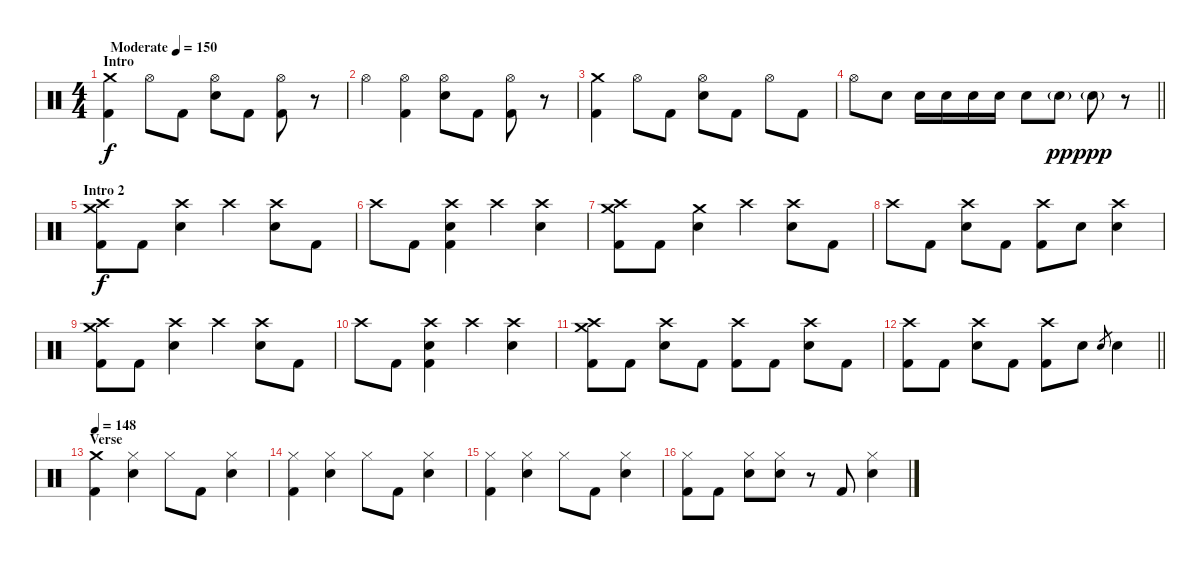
\track "" {instrument percussion}
\staff {score}
\articulation defaults
\ts (4 4)
\section ("" "Intro")
\tempo (150 "Moderate")
\clef neutral
\ks c
("Crash medium (hit)" "Kick (hit) 2").4{dy f} "Hi-Hat (open)".8 "Kick (hit) 2".8 ("Hi-Hat (open)" "Electric Snare (hit)").8 "Kick (hit) 2".8 ("Hi-Hat (open)" "Kick (hit) 2").8 r.8 |
"Hi-Hat (open)".4 ("Hi-Hat (open)" "Kick (hit) 2").4 ("Hi-Hat (open)" "Electric Snare (hit)").8 "Kick (hit) 2".8 ("Hi-Hat (open)" "Kick (hit) 2").8 r.8 |
("Crash medium (hit)" "Kick (hit) 2").4 "Hi-Hat (open)".8 "Kick (hit) 2".8 ("Hi-Hat (open)" "Electric Snare (hit)").8 "Kick (hit) 2".8 "Hi-Hat (open)".8 "Kick (hit) 2".8 |
\barLineRight lightlight "Hi-Hat (open)".8 "Electric Snare (hit)".8 "Electric Snare (hit)".16 "Electric Snare (hit)".16 "Electric Snare (hit)".16 "Electric Snare (hit)".16 "Electric Snare (hit)".8 "Electric Snare (hit)"{g}.8{dy pp} "Electric Snare (hit)"{g}.8{dy ppp}
r.8 |
\section ("" "Intro 2")
("Crash medium (hit)" "Crash high (hit)" "Kick (hit) 2").8{dy f} "Kick (hit) 2".8 ("Crash high (hit)" "Electric Snare (hit)").4 "Crash high (hit)".4 ("Crash high (hit)" "Electric Snare (hit)").8 "Kick (hit) 2".8 |
"Crash high (hit)".8 "Kick (hit) 2".8 ("Crash high (hit)" "Electric Snare (hit)" "Kick (hit) 2").4 "Crash high (hit)".4 ("Crash high (hit)" "Electric Snare (hit)").4 |
("Crash medium (hit)" "Crash high (hit)" "Kick (hit) 2").8 "Kick (hit) 2".8 ("Crash medium (hit)" "Electric Snare (hit)").4 "Crash high (hit)".4 ("Crash high (hit)" "Electric Snare (hit)").8 "Kick (hit) 2".8 |
"Crash high (hit)".8 "Kick (hit) 2".8 ("Crash high (hit)" "Electric Snare (hit)").8 "Kick (hit) 2".8 ("Crash high (hit)" "Kick (hit) 2").8 "Electric Snare (hit)".8 ("Crash high (hit)" "Electric Snare (hit)").4 |
("Crash medium (hit)" "Crash high (hit)" "Kick (hit) 2").8 "Kick (hit) 2".8 ("Crash high (hit)" "Electric Snare (hit)").4 "Crash high (hit)".4 ("Crash high (hit)" "Electric Snare (hit)").8 "Kick (hit) 2".8 |
"Crash high (hit)".8 "Kick (hit) 2".8 ("Crash high (hit)" "Electric Snare (hit)" "Kick (hit) 2").4 "Crash high (hit)".4 ("Crash high (hit)" "Electric Snare (hit)").4 |
("Crash medium (hit)" "Crash high (hit)" "Kick (hit) 2").8 "Kick (hit) 2".8 ("Crash high (hit)" "Electric Snare (hit)").8 "Kick (hit) 2".8 ("Crash high (hit)" "Kick (hit) 2").8 "Kick (hit) 2".8 ("Crash high (hit)" "Electric Snare (hit)").8 "Kick (hit) 2".8 |
\barLineRight lightlight
("Crash high (hit)" "Kick (hit) 2").8 "Kick (hit) 2".8 ("Crash high (hit)" "Electric Snare (hit)").8 "Kick (hit) 2".8 ("Crash high (hit)" "Kick (hit) 2").8 "Electric Snare (hit)".8 "Electric Snare (hit)".8{gr} "Electric Snare (hit)".4 |
\section ("" "Verse")
\tempo 148
("Crash medium (hit)" "Kick (hit) 2").4 ("Hi-Hat (closed)" "Electric Snare (hit)").4 "Hi-Hat (closed)".8 "Kick (hit) 2".8 ("Hi-Hat (closed)" "Electric Snare (hit)").4 |
("Hi-Hat (closed)" "Kick (hit) 2").4 ("Hi-Hat (closed)" "Electric Snare (hit)").4 "Hi-Hat (closed)".8 "Kick (hit) 2".8 ("Hi-Hat (closed)" "Electric Snare (hit)").4 |
("Hi-Hat (closed)" "Kick (hit) 2").4 ("Hi-Hat (closed)" "Electric Snare (hit)").4 "Hi-Hat (closed)".8 "Kick (hit) 2".8 ("Hi-Hat (closed)" "Electric Snare (hit)").4 |
("Hi-Hat (closed)" "Kick (hit) 2").8 "Kick (hit) 2".8 ("Hi-Hat (closed)" "Electric Snare (hit)").8 ("Hi-Hat (closed)" "Electric Snare (hit)").8 r.8 "Kick (hit) 2".8 ("Hi-Hat (closed)" "Electric Snare (hit)").4
